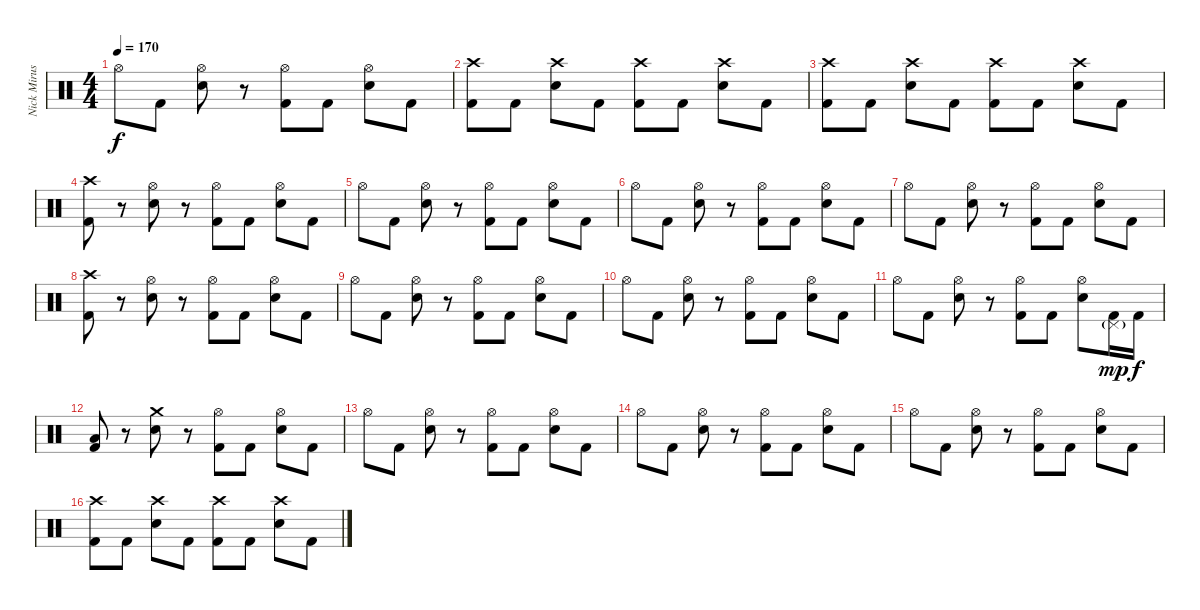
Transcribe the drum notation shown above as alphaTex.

\track ("Nick Mirusso - Drums" "Nick Mirus") {instrument percussion}
\staff {score}
\articulation defaults
\ts (4 4)
\tempo 170
\clef neutral
\ks c "Hi-Hat (open)".8{dy f} "Kick (hit) 2".8
("Hi-Hat (open)" "Electric Snare (hit)").8 r.8 ("Hi-Hat (open)" "Kick (hit) 2").8 "Kick (hit) 2".8 ("Hi-Hat (open)" "Electric Snare (hit)").8 "Kick (hit) 2".8 |
("Crash high (hit)" "Kick (hit) 2").8 "Kick (hit) 2".8 ("Crash high (hit)" "Electric Snare (hit)").8 "Kick (hit) 2".8 ("Crash high (hit)" "Kick (hit) 2").8 "Kick (hit) 2".8 ("Crash high (hit)" "Electric Snare (hit)").8 "Kick (hit) 2".8 |
("Crash high (hit)" "Kick (hit) 2").8 "Kick (hit) 2".8 ("Crash high (hit)" "Electric Snare (hit)").8 "Kick (hit) 2".8 ("Crash high (hit)" "Kick (hit) 2").8 "Kick (hit) 2".8 ("Crash high (hit)" "Electric Snare (hit)").8 "Kick (hit) 2".8 |
("Crash high (hit)" "Kick (hit) 2").8 r.8 ("Hi-Hat (open)" "Electric Snare (hit)").8 r.8 ("Hi-Hat (open)" "Kick (hit) 2").8 "Kick (hit) 2".8 ("Hi-Hat (open)" "Electric Snare (hit)").8 "Kick (hit) 2".8 |
"Hi-Hat (open)".8 "Kick (hit) 2".8 ("Hi-Hat (open)" "Electric Snare (hit)").8 r.8 ("Hi-Hat (open)" "Kick (hit) 2").8 "Kick (hit) 2".8 ("Hi-Hat (open)" "Electric Snare (hit)").8 "Kick (hit) 2".8 |
"Hi-Hat (open)".8 "Kick (hit) 2".8 ("Hi-Hat (open)" "Electric Snare (hit)").8 r.8 ("Hi-Hat (open)" "Kick (hit) 2").8 "Kick (hit) 2".8 ("Hi-Hat (open)" "Electric Snare (hit)").8 "Kick (hit) 2".8 |
"Hi-Hat (open)".8 "Kick (hit) 2".8 ("Hi-Hat (open)" "Electric Snare (hit)").8 r.8 ("Hi-Hat (open)" "Kick (hit) 2").8 "Kick (hit) 2".8 ("Hi-Hat (open)" "Electric Snare (hit)").8 "Kick (hit) 2".8 |
("Crash high (hit)" "Kick (hit) 2").8 r.8 ("Hi-Hat (open)" "Electric Snare (hit)").8 r.8 ("Hi-Hat (open)" "Kick (hit) 2").8 "Kick (hit) 2".8 ("Hi-Hat (open)" "Electric Snare (hit)").8 "Kick (hit) 2".8 |
"Hi-Hat (open)".8 "Kick (hit) 2".8 ("Hi-Hat (open)" "Electric Snare (hit)").8 r.8 ("Hi-Hat (open)" "Kick (hit) 2").8 "Kick (hit) 2".8 ("Hi-Hat (open)" "Electric Snare (hit)").8 "Kick (hit) 2".8 |
"Hi-Hat (open)".8 "Kick (hit) 2".8 ("Hi-Hat (open)" "Electric Snare (hit)").8 r.8 ("Hi-Hat (open)" "Kick (hit) 2").8 "Kick (hit) 2".8 ("Hi-Hat (open)" "Electric Snare (hit)").8 "Kick (hit) 2".8 |
"Hi-Hat (open)".8 "Kick (hit) 2".8 ("Hi-Hat (open)" "Electric Snare (hit)").8 r.8 ("Hi-Hat (open)" "Kick (hit) 2").8 "Kick (hit) 2".8 ("Hi-Hat (open)" "Electric Snare (hit)").8 ("Pedal Hi-Hat (hit)"{g} "Kick (hit) 2").16{dy mp} "Kick (hit) 2".16{dy f} |
("Low Floor Tom (hit)" "Kick (hit) 2").8 r.8 ("Crash medium (hit)" "Electric Snare (hit)").8 r.8 ("Hi-Hat (open)" "Kick (hit) 2").8 "Kick (hit) 2".8 ("Hi-Hat (open)" "Electric Snare (hit)").8 "Kick (hit) 2".8 |
"Hi-Hat (open)".8 "Kick (hit) 2".8 ("Hi-Hat (open)" "Electric Snare (hit)").8 r.8 ("Hi-Hat (open)" "Kick (hit) 2").8 "Kick (hit) 2".8 ("Hi-Hat (open)" "Electric Snare (hit)").8 "Kick (hit) 2".8 |
"Hi-Hat (open)".8 "Kick (hit) 2".8 ("Hi-Hat (open)" "Electric Snare (hit)").8 r.8 ("Hi-Hat (open)" "Kick (hit) 2").8 "Kick (hit) 2".8 ("Hi-Hat (open)" "Electric Snare (hit)").8 "Kick (hit) 2".8 |
"Hi-Hat (open)".8 "Kick (hit) 2".8 ("Hi-Hat (open)" "Electric Snare (hit)").8 r.8 ("Hi-Hat (open)" "Kick (hit) 2").8 "Kick (hit) 2".8 ("Hi-Hat (open)" "Electric Snare (hit)").8 "Kick (hit) 2".8 |
("Crash high (hit)" "Kick (hit) 2").8 "Kick (hit) 2".8 ("Crash high (hit)" "Electric Snare (hit)").8 "Kick (hit) 2".8 ("Crash high (hit)" "Kick (hit) 2").8 "Kick (hit) 2".8 ("Crash high (hit)" "Electric Snare (hit)").8 "Kick (hit) 2".8
